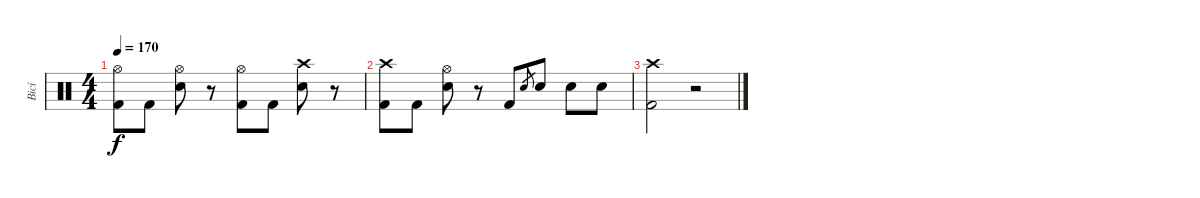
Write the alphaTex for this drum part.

\track ("Bicí" "Bicí") {instrument percussion}
\staff {score}
\articulation defaults
\ts (4 4)
\tempo 170
\clef neutral
\ks c
("Hi-Hat (open)" "Kick (hit) 2").8{dy f} "Kick (hit) 2".8 ("Hi-Hat (open)" "Snare (hit) 2").8 r.8 ("Hi-Hat (open)" "Kick (hit) 2").8 "Kick (hit) 2".8 ("Crash high (hit)" "Snare (hit) 2").8 r.8 |
("Crash high (hit)" "Kick (hit) 2").8 "Kick (hit) 2".8 ("Hi-Hat (open)" "Snare (hit) 2").8 r.8 "Kick (hit) 2".8 "Snare (hit) 2".8{gr} "Snare (hit) 2".8 "Snare (hit) 2".8 "Snare (hit) 2".8 |
("Crash high (hit)" "Kick (hit) 2").2 r.2
